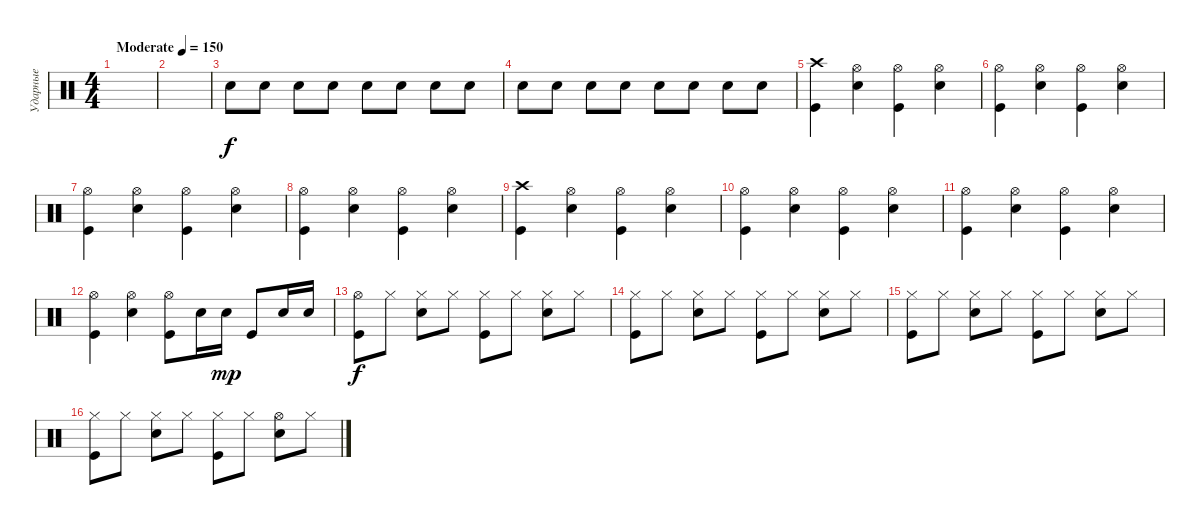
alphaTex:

\track ("Ударные" "Ударные") {instrument percussion}
\staff {score}
\articulation defaults
\ts (4 4)
\tempo (150 "Moderate")
\clef neutral
\ks c
|
|
"Snare (hit) 2".8 "Snare (hit) 2".8 "Snare (hit) 2".8 "Snare (hit) 2".8 "Snare (hit) 2".8 "Snare (hit) 2".8 "Snare (hit) 2".8 "Snare (hit) 2".8 |
"Snare (hit) 2".8 "Snare (hit) 2".8 "Snare (hit) 2".8 "Snare (hit) 2".8 "Snare (hit) 2".8 "Snare (hit) 2".8 "Snare (hit) 2".8 "Snare (hit) 2".8 |
("Crash high (hit)" "Kick (hit)").4 ("Hi-Hat (open)" "Snare (hit) 2").4 ("Hi-Hat (open)" "Kick (hit)").4 ("Hi-Hat (open)" "Snare (hit) 2").4 |
("Hi-Hat (open)" "Kick (hit)").4 ("Hi-Hat (open)" "Snare (hit) 2").4 ("Hi-Hat (open)" "Kick (hit)").4 ("Hi-Hat (open)" "Snare (hit) 2").4 |
("Hi-Hat (open)" "Kick (hit)").4 ("Hi-Hat (open)" "Snare (hit) 2").4 ("Hi-Hat (open)" "Kick (hit)").4 ("Hi-Hat (open)" "Snare (hit) 2").4 |
("Hi-Hat (open)" "Kick (hit)").4 ("Hi-Hat (open)" "Snare (hit) 2").4 ("Hi-Hat (open)" "Kick (hit)").4 ("Hi-Hat (open)" "Snare (hit) 2").4 |
("Crash high (hit)" "Kick (hit)").4 ("Hi-Hat (open)" "Snare (hit) 2").4 ("Hi-Hat (open)" "Kick (hit)").4 ("Hi-Hat (open)" "Snare (hit) 2").4 |
("Hi-Hat (open)" "Kick (hit)").4 ("Hi-Hat (open)" "Snare (hit) 2").4 ("Hi-Hat (open)" "Kick (hit)").4 ("Hi-Hat (open)" "Snare (hit) 2").4 |
("Hi-Hat (open)" "Kick (hit)").4 ("Hi-Hat (open)" "Snare (hit) 2").4 ("Hi-Hat (open)" "Kick (hit)").4 ("Hi-Hat (open)" "Snare (hit) 2").4 |
("Hi-Hat (open)" "Kick (hit)").4 ("Hi-Hat (open)" "Snare (hit) 2").4 ("Hi-Hat (open)" "Kick (hit)").8 "Snare (hit) 2".16 "Snare (hit) 2".16{dy mp} "Kick (hit)".8 "Snare (hit) 2".16 "Snare (hit) 2".16 |
("Hi-Hat (open)" "Kick (hit)").8{dy f} "Hi-Hat (closed)".8 ("Hi-Hat (closed)" "Snare (hit) 2").8 "Hi-Hat (closed)".8 ("Hi-Hat (closed)" "Kick (hit)").8 "Hi-Hat (closed)".8 ("Hi-Hat (closed)" "Snare (hit) 2").8 "Hi-Hat (closed)".8 |
("Hi-Hat (closed)" "Kick (hit)").8 "Hi-Hat (closed)".8 ("Hi-Hat (closed)" "Snare (hit) 2").8 "Hi-Hat (closed)".8 ("Hi-Hat (closed)" "Kick (hit)").8 "Hi-Hat (closed)".8 ("Hi-Hat (closed)" "Snare (hit) 2").8 "Hi-Hat (closed)".8 |
("Hi-Hat (closed)" "Kick (hit)").8 "Hi-Hat (closed)".8 ("Hi-Hat (closed)" "Snare (hit) 2").8 "Hi-Hat (closed)".8 ("Hi-Hat (closed)" "Kick (hit)").8 "Hi-Hat (closed)".8 ("Hi-Hat (closed)" "Snare (hit) 2").8 "Hi-Hat (closed)".8 |
("Hi-Hat (closed)" "Kick (hit)").8 "Hi-Hat (closed)".8 ("Hi-Hat (closed)" "Snare (hit) 2").8 "Hi-Hat (closed)".8 ("Hi-Hat (closed)" "Kick (hit)").8 "Hi-Hat (closed)".8 ("Hi-Hat (open)" "Snare (hit) 2").8 "Hi-Hat (closed)".8
